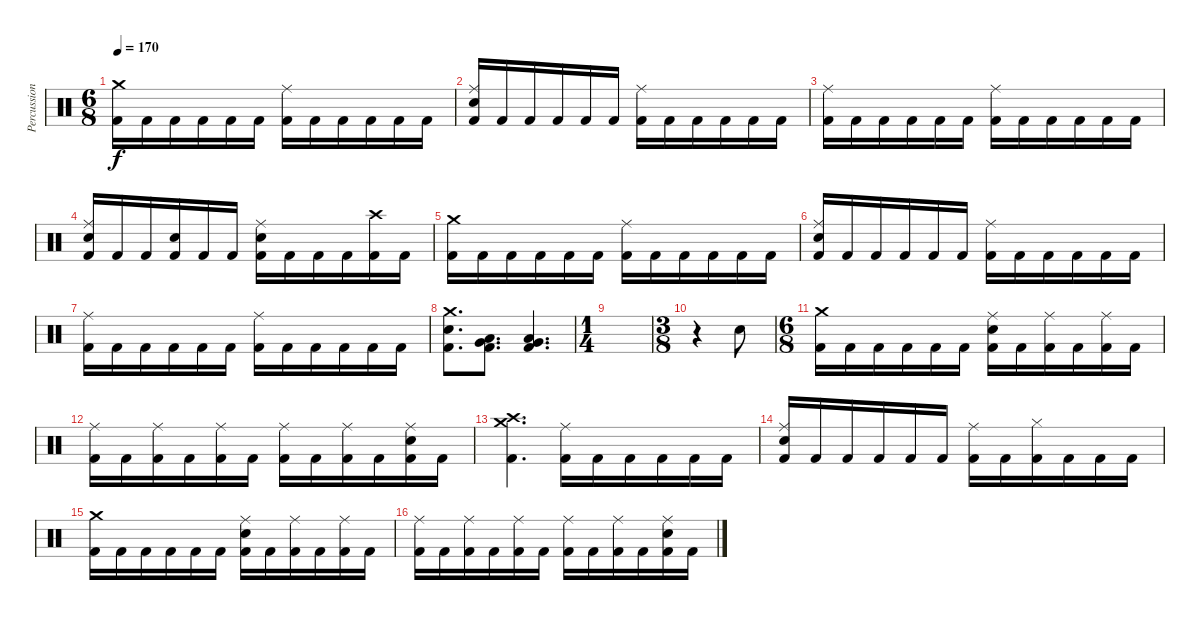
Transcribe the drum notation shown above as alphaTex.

\track ("Percussions" "Percussion") {instrument percussion}
\staff {score}
\articulation defaults
\ts (6 8)
\tempo 170
\clef neutral
\ks c
("Crash medium (hit)" "Kick (hit) 2").16{dy f} "Kick (hit) 2".16 "Kick (hit) 2".16 "Kick (hit) 2".16 "Kick (hit) 2".16 "Kick (hit) 2".16 ("Ride (middle)" "Kick (hit) 2").16 "Kick (hit) 2".16 "Kick (hit) 2".16 "Kick (hit) 2".16 "Kick (hit) 2".16 "Kick (hit) 2".16 |
("Ride (middle)" "Electric Snare (hit)" "Kick (hit) 2").16 "Kick (hit) 2".16 "Kick (hit) 2".16 "Kick (hit) 2".16 "Kick (hit) 2".16 "Kick (hit) 2".16 ("Ride (middle)" "Kick (hit) 2").16 "Kick (hit) 2".16 "Kick (hit) 2".16 "Kick (hit) 2".16 "Kick (hit) 2".16 "Kick (hit) 2".16 |
("Ride (middle)" "Kick (hit) 2").16 "Kick (hit) 2".16 "Kick (hit) 2".16 "Kick (hit) 2".16 "Kick (hit) 2".16 "Kick (hit) 2".16 ("Ride (middle)" "Kick (hit) 2").16 "Kick (hit) 2".16 "Kick (hit) 2".16 "Kick (hit) 2".16 "Kick (hit) 2".16 "Kick (hit) 2".16 |
("Ride (middle)" "Electric Snare (hit)" "Kick (hit) 2").16 "Kick (hit) 2".16 "Kick (hit) 2".16 ("Electric Snare (hit)" "Kick (hit) 2").16 "Kick (hit) 2".16 "Kick (hit) 2".16 ("Ride (middle)" "Electric Snare (hit)" "Kick (hit) 2").16 "Kick (hit) 2".16 "Kick (hit) 2".16 "Kick (hit) 2".16 ("Crash high (hit)" "Kick (hit) 2").16 "Kick (hit) 2".16 |
("Crash medium (hit)" "Kick (hit) 2").16 "Kick (hit) 2".16 "Kick (hit) 2".16 "Kick (hit) 2".16 "Kick (hit) 2".16 "Kick (hit) 2".16 ("Ride (middle)" "Kick (hit) 2").16 "Kick (hit) 2".16 "Kick (hit) 2".16 "Kick (hit) 2".16 "Kick (hit) 2".16 "Kick (hit) 2".16 |
("Ride (middle)" "Electric Snare (hit)" "Kick (hit) 2").16 "Kick (hit) 2".16 "Kick (hit) 2".16 "Kick (hit) 2".16 "Kick (hit) 2".16 "Kick (hit) 2".16 ("Ride (middle)" "Kick (hit) 2").16 "Kick (hit) 2".16 "Kick (hit) 2".16 "Kick (hit) 2".16 "Kick (hit) 2".16 "Kick (hit) 2".16 |
("Ride (middle)" "Kick (hit) 2").16 "Kick (hit) 2".16 "Kick (hit) 2".16 "Kick (hit) 2".16 "Kick (hit) 2".16 "Kick (hit) 2".16 ("Ride (middle)" "Kick (hit) 2").16 "Kick (hit) 2".16 "Kick (hit) 2".16 "Kick (hit) 2".16 "Kick (hit) 2".16 "Kick (hit) 2".16 |
("Crash medium (hit)" "Electric Snare (hit)" "Kick (hit) 2").8{d} ("Very Low Tom (hit)" "Low Floor Tom (hit)" "Kick (hit) 2").8{d} ("Very Low Tom (hit)" "Low Floor Tom (hit)" "Kick (hit) 2").4{d} |
\ts (1 4)
|
\ts (3 8)
r.4 "Electric Snare (hit)".8 |
\ts (6 8)
("Crash medium (hit)" "Kick (hit) 2").16 "Kick (hit) 2".16 "Kick (hit) 2".16 "Kick (hit) 2".16 "Kick (hit) 2".16 "Kick (hit) 2".16 ("Electric Snare (hit)" "Ride (middle)" "Kick (hit) 2").16 "Kick (hit) 2".16 ("Ride (middle)" "Kick (hit) 2").16 "Kick (hit) 2".16 ("Ride (middle)" "Kick (hit) 2").16 "Kick (hit) 2".16 |
("Ride (middle)" "Kick (hit) 2").16 "Kick (hit) 2".16 ("Ride (middle)" "Kick (hit) 2").16 "Kick (hit) 2".16 ("Ride (middle)" "Kick (hit) 2").16 "Kick (hit) 2".16 ("Ride (middle)" "Kick (hit) 2").16 "Kick (hit) 2".16 ("Ride (middle)" "Kick (hit) 2").16 "Kick (hit) 2".16 ("Electric Snare (hit)" "Ride (middle)" "Kick (hit) 2").16 "Kick (hit) 2".16 |
("Crash high (hit)" "Crash medium (hit)" "Kick (hit) 2").4{d} ("Ride (middle)" "Kick (hit) 2").16 "Kick (hit) 2".16 "Kick (hit) 2".16 "Kick (hit) 2".16 "Kick (hit) 2".16 "Kick (hit) 2".16 |
("Electric Snare (hit)" "Ride (middle)" "Kick (hit) 2").16 "Kick (hit) 2".16 "Kick (hit) 2".16 "Kick (hit) 2".16 "Kick (hit) 2".16 "Kick (hit) 2".16 ("Ride (middle)" "Kick (hit) 2").16 "Kick (hit) 2".16 ("Hi-Hat (closed)" "Kick (hit) 2").16 "Kick (hit) 2".16 "Kick (hit) 2".16 "Kick (hit) 2".16 |
("Crash medium (hit)" "Kick (hit) 2").16 "Kick (hit) 2".16 "Kick (hit) 2".16 "Kick (hit) 2".16 "Kick (hit) 2".16 "Kick (hit) 2".16 ("Electric Snare (hit)" "Ride (middle)" "Kick (hit) 2").16 "Kick (hit) 2".16 ("Ride (middle)" "Kick (hit) 2").16 "Kick (hit) 2".16 ("Ride (middle)" "Kick (hit) 2").16 "Kick (hit) 2".16 |
("Ride (middle)" "Kick (hit) 2").16 "Kick (hit) 2".16 ("Ride (middle)" "Kick (hit) 2").16 "Kick (hit) 2".16 ("Ride (middle)" "Kick (hit) 2").16 "Kick (hit) 2".16 ("Ride (middle)" "Kick (hit) 2").16 "Kick (hit) 2".16 ("Ride (middle)" "Kick (hit) 2").16 "Kick (hit) 2".16 ("Electric Snare (hit)" "Ride (middle)" "Kick (hit) 2").16 "Kick (hit) 2".16
